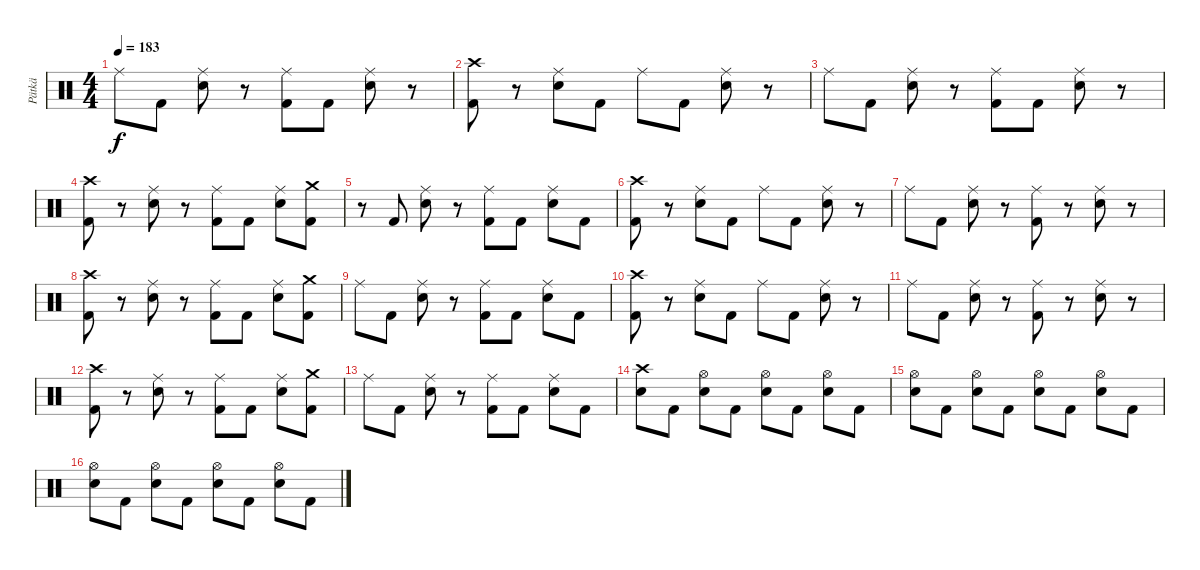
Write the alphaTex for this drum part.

\track ("Pätkä" "Pätkä") {instrument percussion}
\staff {score}
\articulation defaults
\ts (4 4)
\tempo 183
\clef neutral
\ks c "Ride (middle)".8{dy f} "Kick (hit) 2".8
("Ride (middle)" "Electric Snare (hit)").8 r.8 ("Ride (middle)" "Kick (hit) 2").8 "Kick (hit) 2".8 ("Ride (middle)" "Electric Snare (hit)").8 r.8 |
("Crash high (hit)" "Kick (hit) 2").8 r.8 ("Ride (middle)" "Electric Snare (hit)").8 "Kick (hit) 2".8 "Ride (middle)".8 "Kick (hit) 2".8 ("Ride (middle)" "Electric Snare (hit)").8 r.8 |
"Ride (middle)".8 "Kick (hit) 2".8 ("Ride (middle)" "Electric Snare (hit)").8 r.8 ("Ride (middle)" "Kick (hit) 2").8 "Kick (hit) 2".8 ("Ride (middle)" "Electric Snare (hit)").8 r.8 |
("Crash high (hit)" "Kick (hit) 2").8 r.8 ("Ride (middle)" "Electric Snare (hit)").8 r.8 ("Ride (middle)" "Kick (hit) 2").8 "Kick (hit) 2".8 ("Ride (middle)" "Electric Snare (hit)").8 ("Crash medium (hit)" "Kick (hit) 2").8 |
r.8 "Kick (hit) 2".8 ("Ride (middle)" "Electric Snare (hit)").8 r.8 ("Ride (middle)" "Kick (hit) 2").8 "Kick (hit) 2".8 ("Ride (middle)" "Electric Snare (hit)").8 "Kick (hit) 2".8 |
("Crash high (hit)" "Kick (hit) 2").8 r.8 ("Ride (middle)" "Electric Snare (hit)").8 "Kick (hit) 2".8 "Ride (middle)".8 "Kick (hit) 2".8 ("Ride (middle)" "Electric Snare (hit)").8 r.8 |
"Ride (middle)".8 "Kick (hit) 2".8 ("Ride (middle)" "Electric Snare (hit)").8 r.8 ("Ride (middle)" "Kick (hit) 2").8 r.8 ("Ride (middle)" "Electric Snare (hit)").8 r.8 |
("Crash high (hit)" "Kick (hit) 2").8 r.8 ("Ride (middle)" "Electric Snare (hit)").8 r.8 ("Ride (middle)" "Kick (hit) 2").8 "Kick (hit) 2".8 ("Ride (middle)" "Electric Snare (hit)").8 ("Crash medium (hit)" "Kick (hit) 2").8 |
"Ride (middle)".8 "Kick (hit) 2".8 ("Ride (middle)" "Electric Snare (hit)").8 r.8 ("Ride (middle)" "Kick (hit) 2").8 "Kick (hit) 2".8 ("Ride (middle)" "Electric Snare (hit)").8 "Kick (hit) 2".8 |
("Crash high (hit)" "Kick (hit) 2").8 r.8 ("Ride (middle)" "Electric Snare (hit)").8 "Kick (hit) 2".8 "Ride (middle)".8 "Kick (hit) 2".8 ("Ride (middle)" "Electric Snare (hit)").8 r.8 |
"Ride (middle)".8 "Kick (hit) 2".8 ("Ride (middle)" "Electric Snare (hit)").8 r.8 ("Ride (middle)" "Kick (hit) 2").8 r.8 ("Ride (middle)" "Electric Snare (hit)").8 r.8 |
("Crash high (hit)" "Kick (hit) 2").8 r.8 ("Ride (middle)" "Electric Snare (hit)").8 r.8 ("Ride (middle)" "Kick (hit) 2").8 "Kick (hit) 2".8 ("Ride (middle)" "Electric Snare (hit)").8 ("Crash medium (hit)" "Kick (hit) 2").8 |
"Ride (middle)".8 "Kick (hit) 2".8 ("Ride (middle)" "Electric Snare (hit)").8 r.8 ("Ride (middle)" "Kick (hit) 2").8 "Kick (hit) 2".8 ("Ride (middle)" "Electric Snare (hit)").8 "Kick (hit) 2".8 |
("Crash high (hit)" "Electric Snare (hit)").8 "Kick (hit) 2".8 ("Hi-Hat (open)" "Electric Snare (hit)").8 "Kick (hit) 2".8 ("Hi-Hat (open)" "Electric Snare (hit)").8 "Kick (hit) 2".8 ("Hi-Hat (open)" "Electric Snare (hit)").8 "Kick (hit) 2".8 |
("Hi-Hat (open)" "Electric Snare (hit)").8 "Kick (hit) 2".8 ("Hi-Hat (open)" "Electric Snare (hit)").8 "Kick (hit) 2".8 ("Hi-Hat (open)" "Electric Snare (hit)").8 "Kick (hit) 2".8 ("Hi-Hat (open)" "Electric Snare (hit)").8 "Kick (hit) 2".8 |
("Hi-Hat (open)" "Electric Snare (hit)").8 "Kick (hit) 2".8 ("Hi-Hat (open)" "Electric Snare (hit)").8 "Kick (hit) 2".8 ("Hi-Hat (open)" "Electric Snare (hit)").8 "Kick (hit) 2".8 ("Hi-Hat (open)" "Electric Snare (hit)").8 "Kick (hit) 2".8
